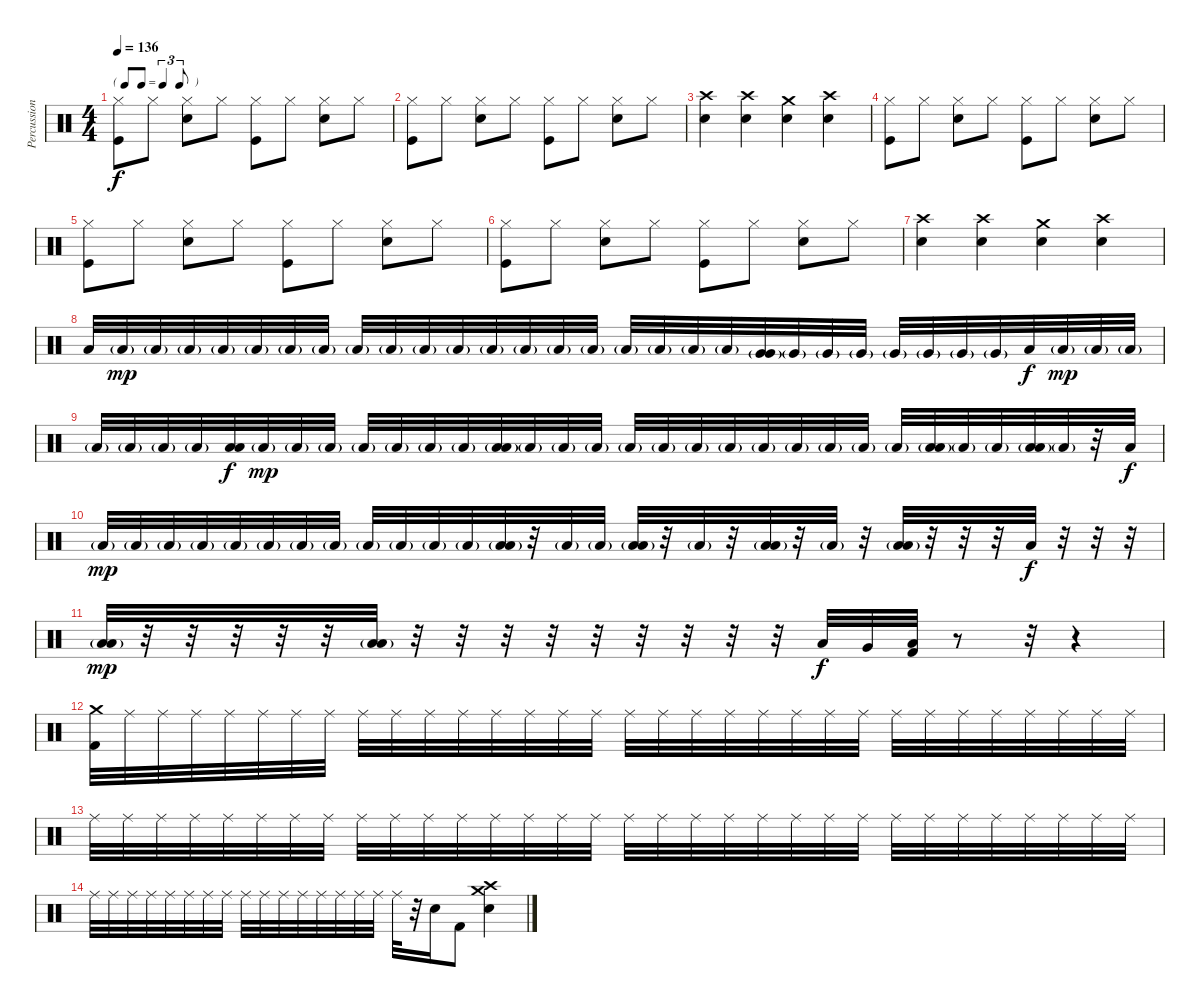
\track ("Percussion" "Percussion") {instrument percussion}
\staff {score}
\articulation defaults
\ts (4 4)
\tf triplet8th
\tempo 136
\clef neutral
\ks c
("Hi-Hat (closed)" "Kick (hit)").8{dy f} "Hi-Hat (closed)".8 ("Hi-Hat (closed)" "Snare (hit) 2").8 "Hi-Hat (closed)".8 ("Hi-Hat (closed)" "Kick (hit)").8 "Hi-Hat (closed)".8 ("Hi-Hat (closed)" "Snare (hit) 2").8 "Hi-Hat (closed)".8 |
("Hi-Hat (closed)" "Kick (hit)").8 "Hi-Hat (closed)".8 ("Hi-Hat (closed)" "Snare (hit) 2").8 "Hi-Hat (closed)".8 ("Hi-Hat (closed)" "Kick (hit)").8 "Hi-Hat (closed)".8 ("Hi-Hat (closed)" "Snare (hit) 2").8 "Hi-Hat (closed)".8 |
("Crash high (hit)" "Snare (hit) 2").4 ("Crash high (hit)" "Snare (hit) 2").4 ("Crash medium (hit)" "Snare (hit) 2").4 ("Crash high (hit)" "Snare (hit) 2").4 |
("Hi-Hat (closed)" "Kick (hit)").8 "Hi-Hat (closed)".8 ("Hi-Hat (closed)" "Snare (hit) 2").8 "Hi-Hat (closed)".8 ("Hi-Hat (closed)" "Kick (hit)").8 "Hi-Hat (closed)".8 ("Hi-Hat (closed)" "Snare (hit) 2").8 "Hi-Hat (closed)".8 |
("Hi-Hat (closed)" "Kick (hit)").8 "Hi-Hat (closed)".8 ("Hi-Hat (closed)" "Snare (hit) 2").8 "Hi-Hat (closed)".8 ("Hi-Hat (closed)" "Kick (hit)").8 "Hi-Hat (closed)".8 ("Hi-Hat (closed)" "Snare (hit) 2").8 "Hi-Hat (closed)".8 |
("Hi-Hat (closed)" "Kick (hit)").8 "Hi-Hat (closed)".8 ("Hi-Hat (closed)" "Snare (hit) 2").8 "Hi-Hat (closed)".8 ("Hi-Hat (closed)" "Kick (hit)").8 "Hi-Hat (closed)".8 ("Hi-Hat (closed)" "Snare (hit) 2").8 "Hi-Hat (closed)".8 |
("Crash high (hit)" "Snare (hit) 2").4 ("Crash high (hit)" "Snare (hit) 2").4 ("Crash medium (hit)" "Snare (hit) 2").4 ("Crash high (hit)" "Snare (hit) 2").4 |
"Low Tom (hit)".32 "Low Tom (hit)"{g}.32{dy mp} "Low Tom (hit)"{g}.32 "Low Tom (hit)"{g}.32 "Low Tom (hit)"{g}.32 "Low Tom (hit)"{g}.32 "Low Tom (hit)"{g}.32 "Low Tom (hit)"{g}.32 "Low Tom (hit)"{g}.32 "Low Tom (hit)"{g}.32 "Low Tom (hit)"{g}.32 "Low Tom (hit)"{g}.32 "Low Tom (hit)"{g}.32 "Low Tom (hit)"{g}.32 "Low Tom (hit)"{g}.32 "Low Tom (hit)"{g}.32 "Low Tom (hit)"{g}.32 "Low Tom (hit)"{g}.32 "Low Tom (hit)"{g}.32 "Low Tom (hit)"{g}.32 ("Very Low Tom (hit)"{g} "Very Low Tom (hit)").32 "Very Low Tom (hit)"{g}.32 "Very Low Tom (hit)"{g}.32 "Very Low Tom (hit)"{g}.32 "Very Low Tom (hit)"{g}.32 "Very Low Tom (hit)"{g}.32 "Very Low Tom (hit)"{g}.32 "Very Low Tom (hit)"{g}.32 "Low Tom (hit)".32{dy f} "Low Tom (hit)"{g}.32{dy mp} "Low Tom (hit)"{g}.32 "Low Tom (hit)"{g}.32 |
"Low Tom (hit)"{g}.32 "Low Tom (hit)"{g}.32 "Low Tom (hit)"{g}.32 "Low Tom (hit)"{g}.32 ("Low Floor Tom (hit)" "Low Floor Tom (hit)").32{dy f} "Low Floor Tom (hit)"{g}.32{dy mp} "Low Floor Tom (hit)"{g}.32 "Low Floor Tom (hit)"{g}.32 "Low Floor Tom (hit)"{g}.32 "Low Floor Tom (hit)"{g}.32 "Low Floor Tom (hit)"{g}.32 "Low Floor Tom (hit)"{g}.32 ("Low Floor Tom (hit)"{g} "Low Floor Tom (hit)").32 "Low Floor Tom (hit)"{g}.32 "Low Floor Tom (hit)"{g}.32 "Low Floor Tom (hit)"{g}.32 "Low Floor Tom (hit)"{g}.32 "Low Floor Tom (hit)"{g}.32 "Low Floor Tom (hit)"{g}.32 "Low Floor Tom (hit)"{g}.32 "Low Floor Tom (hit)"{g}.32 "Low Floor Tom (hit)"{g}.32 "Low Floor Tom (hit)"{g}.32 "Low Floor Tom (hit)"{g}.32 "Low Floor Tom (hit)"{g}.32 ("Low Floor Tom (hit)"{g} "Low Floor Tom (hit)").32 "Low Floor Tom (hit)"{g}.32 "Low Floor Tom (hit)"{g}.32 ("Low Floor Tom (hit)"{g} "Low Floor Tom (hit)").32 "Low Floor Tom (hit)"{g}.32 r.32 "Low Floor Tom (hit)".32{dy f} |
"Low Floor Tom (hit)"{g}.32{dy mp} "Low Floor Tom (hit)"{g}.32 "Low Floor Tom (hit)"{g}.32 "Low Floor Tom (hit)"{g}.32 "Low Floor Tom (hit)"{g}.32 "Low Floor Tom (hit)"{g}.32 "Low Floor Tom (hit)"{g}.32 "Low Floor Tom (hit)"{g}.32 "Low Floor Tom (hit)"{g}.32 "Low Floor Tom (hit)"{g}.32 "Low Floor Tom (hit)"{g}.32 "Low Floor Tom (hit)"{g}.32 ("Low Floor Tom (hit)"{g} "Low Floor Tom (hit)").32 r.32 "Low Floor Tom (hit)"{g}.32 "Low Floor Tom (hit)"{g}.32 ("Low Floor Tom (hit)"{g} "Low Floor Tom (hit)").32 r.32 "Low Floor Tom (hit)"{g}.32 r.32 ("Low Floor Tom (hit)"{g} "Low Floor Tom (hit)").32 r.32 "Low Floor Tom (hit)"{g}.32 r.32 ("Low Floor Tom (hit)"{g} "Low Floor Tom (hit)").32 r.32 r.32 r.32 "Low Floor Tom (hit)".32{dy f} r.32 r.32 r.32 |
("Low Floor Tom (hit)"{g} "Low Floor Tom (hit)").32{dy mp} r.32 r.32 r.32 r.32 r.32 ("Low Floor Tom (hit)"{g} "Low Floor Tom (hit)").32 r.32 r.32 r.32 r.32 r.32 r.32 r.32 r.32 r.32 "Low Tom (hit)".32{dy f} "Very Low Tom (hit)".32 ("Low Floor Tom (hit)" "Kick (hit) 2").32 r.8 r.32 r.4 |
("Crash medium (hit)" "Kick (hit) 2").32 "Ride (middle)".32 "Ride (middle)".32 "Ride (middle)".32 "Ride (middle)".32 "Ride (middle)".32 "Ride (middle)".32 "Ride (middle)".32 "Ride (middle)".32 "Ride (middle)".32 "Ride (middle)".32 "Ride (middle)".32 "Ride (middle)".32 "Ride (middle)".32 "Ride (middle)".32 "Ride (middle)".32 "Ride (middle)".32 "Ride (middle)".32 "Ride (middle)".32 "Ride (middle)".32 "Ride (middle)".32 "Ride (middle)".32 "Ride (middle)".32 "Ride (middle)".32 "Ride (middle)".32 "Ride (middle)".32 "Ride (middle)".32 "Ride (middle)".32 "Ride (middle)".32 "Ride (middle)".32 "Ride (middle)".32 "Ride (middle)".32 |
"Ride (middle)".32 "Ride (middle)".32 "Ride (middle)".32 "Ride (middle)".32 "Ride (middle)".32 "Ride (middle)".32 "Ride (middle)".32 "Ride (middle)".32 "Ride (middle)".32 "Ride (middle)".32 "Ride (middle)".32 "Ride (middle)".32 "Ride (middle)".32 "Ride (middle)".32 "Ride (middle)".32 "Ride (middle)".32 "Ride (middle)".32 "Ride (middle)".32 "Ride (middle)".32 "Ride (middle)".32 "Ride (middle)".32 "Ride (middle)".32 "Ride (middle)".32 "Ride (middle)".32 "Ride (middle)".32 "Ride (middle)".32 "Ride (middle)".32 "Ride (middle)".32 "Ride (middle)".32 "Ride (middle)".32 "Ride (middle)".32 "Ride (middle)".32 |
"Ride (middle)".32 "Ride (middle)".32 "Ride (middle)".32 "Ride (middle)".32 "Ride (middle)".32 "Ride (middle)".32 "Ride (middle)".32 "Ride (middle)".32 "Ride (middle)".32 "Ride (middle)".32 "Ride (middle)".32 "Ride (middle)".32 "Ride (middle)".32 "Ride (middle)".32 "Ride (middle)".32 "Ride (middle)".32 "Ride (middle)".32 r.32 "Snare (hit) 2".16 "Kick (hit) 2".8 ("Crash medium (hit)" "Crash high (hit)" "Electric Snare (hit)").4
